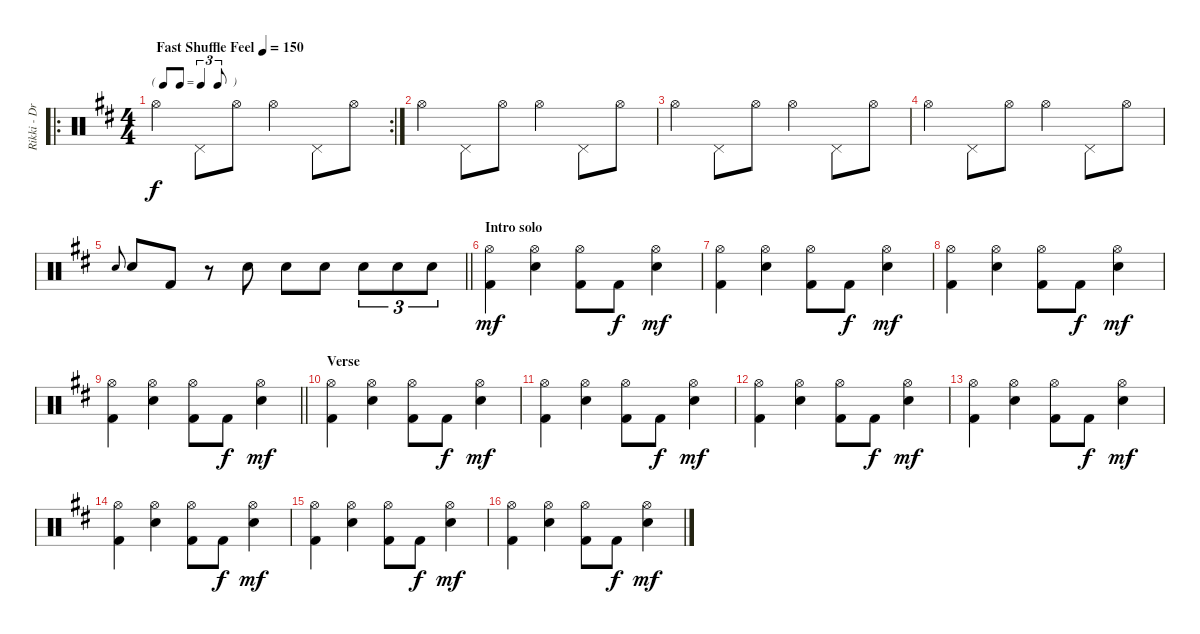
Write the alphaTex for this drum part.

\track ("Rikki - Drums" "Rikki - Dr") {instrument percussion}
\staff {score}
\articulation defaults
\ro
\rc 2
\ts (4 4)
\tf triplet8th
\tempo (150 "Fast Shuffle Feel")
\clef neutral
\ks d "Hi-Hat (open)".4{dy f} "Pedal Hi-Hat (hit)".8 "Hi-Hat (open)".8 "Hi-Hat (open)".4 "Pedal Hi-Hat (hit)".8 "Hi-Hat (open)".8
|
"Hi-Hat (open)".4 "Pedal Hi-Hat (hit)".8 "Hi-Hat (open)".8 "Hi-Hat (open)".4 "Pedal Hi-Hat (hit)".8 "Hi-Hat (open)".8 |
"Hi-Hat (open)".4 "Pedal Hi-Hat (hit)".8 "Hi-Hat (open)".8 "Hi-Hat (open)".4 "Pedal Hi-Hat (hit)".8 "Hi-Hat (open)".8 |
"Hi-Hat (open)".4 "Pedal Hi-Hat (hit)".8 "Hi-Hat (open)".8 "Hi-Hat (open)".4 "Pedal Hi-Hat (hit)".8 "Hi-Hat (open)".8 |
\barLineRight lightlight "Snare (hit) 2".8{gr onbeat} "Snare (hit) 2".8 "Kick (hit) 2".8
r.8 "Snare (hit) 2".8 "Snare (hit) 2".8 "Snare (hit) 2".8 "Snare (hit) 2".8{tu (3 2)} "Snare (hit) 2".8{tu (3 2)} "Snare (hit) 2".8{tu (3 2)} |
\section ("" "Intro solo")
("Hi-Hat (open)" "Kick (hit) 2").4{dy mf} ("Hi-Hat (open)" "Snare (hit) 2").4 ("Hi-Hat (open)" "Kick (hit) 2").8 "Kick (hit) 2".8{dy f} ("Hi-Hat (open)" "Snare (hit) 2").4{dy mf} |
("Hi-Hat (open)" "Kick (hit) 2").4 ("Hi-Hat (open)" "Snare (hit) 2").4 ("Hi-Hat (open)" "Kick (hit) 2").8 "Kick (hit) 2".8{dy f} ("Hi-Hat (open)" "Snare (hit) 2").4{dy mf} |
("Hi-Hat (open)" "Kick (hit) 2").4 ("Hi-Hat (open)" "Snare (hit) 2").4 ("Hi-Hat (open)" "Kick (hit) 2").8 "Kick (hit) 2".8{dy f} ("Hi-Hat (open)" "Snare (hit) 2").4{dy mf} |
\barLineRight lightlight
("Hi-Hat (open)" "Kick (hit) 2").4 ("Hi-Hat (open)" "Snare (hit) 2").4 ("Hi-Hat (open)" "Kick (hit) 2").8 "Kick (hit) 2".8{dy f} ("Hi-Hat (open)" "Snare (hit) 2").4{dy mf} |
\section ("" "Verse")
("Hi-Hat (open)" "Kick (hit) 2").4 ("Hi-Hat (open)" "Snare (hit) 2").4 ("Hi-Hat (open)" "Kick (hit) 2").8 "Kick (hit) 2".8{dy f} ("Hi-Hat (open)" "Snare (hit) 2").4{dy mf} |
("Hi-Hat (open)" "Kick (hit) 2").4 ("Hi-Hat (open)" "Snare (hit) 2").4 ("Hi-Hat (open)" "Kick (hit) 2").8 "Kick (hit) 2".8{dy f} ("Hi-Hat (open)" "Snare (hit) 2").4{dy mf} |
("Hi-Hat (open)" "Kick (hit) 2").4 ("Hi-Hat (open)" "Snare (hit) 2").4 ("Hi-Hat (open)" "Kick (hit) 2").8 "Kick (hit) 2".8{dy f} ("Hi-Hat (open)" "Snare (hit) 2").4{dy mf} |
("Hi-Hat (open)" "Kick (hit) 2").4 ("Hi-Hat (open)" "Snare (hit) 2").4 ("Hi-Hat (open)" "Kick (hit) 2").8 "Kick (hit) 2".8{dy f} ("Hi-Hat (open)" "Snare (hit) 2").4{dy mf} |
("Hi-Hat (open)" "Kick (hit) 2").4 ("Hi-Hat (open)" "Snare (hit) 2").4 ("Hi-Hat (open)" "Kick (hit) 2").8 "Kick (hit) 2".8{dy f} ("Hi-Hat (open)" "Snare (hit) 2").4{dy mf} |
("Hi-Hat (open)" "Kick (hit) 2").4 ("Hi-Hat (open)" "Snare (hit) 2").4 ("Hi-Hat (open)" "Kick (hit) 2").8 "Kick (hit) 2".8{dy f} ("Hi-Hat (open)" "Snare (hit) 2").4{dy mf} |
("Hi-Hat (open)" "Kick (hit) 2").4 ("Hi-Hat (open)" "Snare (hit) 2").4 ("Hi-Hat (open)" "Kick (hit) 2").8 "Kick (hit) 2".8{dy f} ("Hi-Hat (open)" "Snare (hit) 2").4{dy mf}
